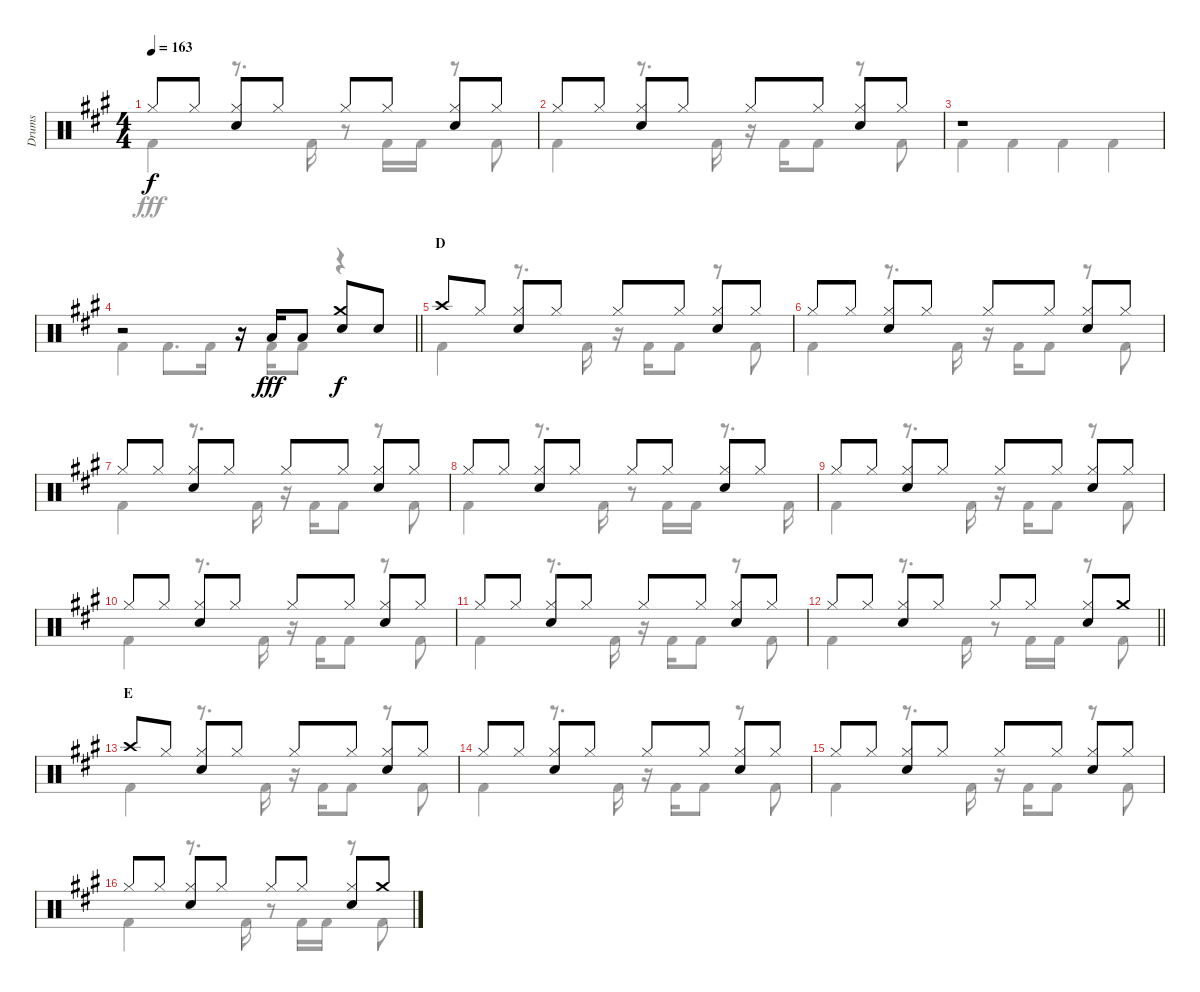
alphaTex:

\track ("Drums" "Drums") {instrument percussion}
\staff {score}
\articulation defaults
\voice
\ts (4 4)
\tempo 163
\clef neutral
\ks a "Hi-Hat (closed)".8{dy f} "Hi-Hat (closed)".8
("Hi-Hat (closed)" "Snare (hit) 2").8 "Hi-Hat (closed)".8 "Hi-Hat (closed)".8 "Hi-Hat (closed)".8 ("Hi-Hat (closed)" "Snare (hit) 2").8 "Hi-Hat (closed)".8 |
"Hi-Hat (closed)".8 "Hi-Hat (closed)".8 ("Hi-Hat (closed)" "Snare (hit) 2").8 "Hi-Hat (closed)".8 "Hi-Hat (closed)".8 "Hi-Hat (closed)".8 ("Hi-Hat (closed)" "Snare (hit) 2").8 "Hi-Hat (closed)".8 |
r.1 |
\barLineRight lightlight
r.2 r.16 "Low Tom (hit)".16{dy fff} "Low Tom (hit)".8 ("Crash medium (hit)" "Snare (hit) 2").8{dy f} "Snare (hit) 2".8 |
\section ("" "D")
"Crash high (hit)".8 "Hi-Hat (closed)".8 ("Hi-Hat (closed)" "Snare (hit) 2").8 "Hi-Hat (closed)".8 "Hi-Hat (closed)".8 "Hi-Hat (closed)".8 ("Hi-Hat (closed)" "Snare (hit) 2").8 "Hi-Hat (closed)".8 |
"Hi-Hat (closed)".8 "Hi-Hat (closed)".8 ("Hi-Hat (closed)" "Snare (hit) 2").8 "Hi-Hat (closed)".8 "Hi-Hat (closed)".8 "Hi-Hat (closed)".8 ("Hi-Hat (closed)" "Snare (hit) 2").8 "Hi-Hat (closed)".8 |
"Hi-Hat (closed)".8 "Hi-Hat (closed)".8 ("Hi-Hat (closed)" "Snare (hit) 2").8 "Hi-Hat (closed)".8 "Hi-Hat (closed)".8 "Hi-Hat (closed)".8 ("Hi-Hat (closed)" "Snare (hit) 2").8 "Hi-Hat (closed)".8 |
"Hi-Hat (closed)".8 "Hi-Hat (closed)".8 ("Hi-Hat (closed)" "Snare (hit) 2").8 "Hi-Hat (closed)".8 "Hi-Hat (closed)".8 "Hi-Hat (closed)".8 ("Hi-Hat (closed)" "Snare (hit) 2").8 "Hi-Hat (closed)".8 |
"Hi-Hat (closed)".8 "Hi-Hat (closed)".8 ("Hi-Hat (closed)" "Snare (hit) 2").8 "Hi-Hat (closed)".8 "Hi-Hat (closed)".8 "Hi-Hat (closed)".8 ("Hi-Hat (closed)" "Snare (hit) 2").8 "Hi-Hat (closed)".8 |
"Hi-Hat (closed)".8 "Hi-Hat (closed)".8 ("Hi-Hat (closed)" "Snare (hit) 2").8 "Hi-Hat (closed)".8 "Hi-Hat (closed)".8 "Hi-Hat (closed)".8 ("Hi-Hat (closed)" "Snare (hit) 2").8 "Hi-Hat (closed)".8 |
"Hi-Hat (closed)".8 "Hi-Hat (closed)".8 ("Hi-Hat (closed)" "Snare (hit) 2").8 "Hi-Hat (closed)".8 "Hi-Hat (closed)".8 "Hi-Hat (closed)".8 ("Hi-Hat (closed)" "Snare (hit) 2").8 "Hi-Hat (closed)".8 |
\barLineRight lightlight "Hi-Hat (closed)".8 "Hi-Hat (closed)".8
("Hi-Hat (closed)" "Snare (hit) 2").8 "Hi-Hat (closed)".8 "Hi-Hat (closed)".8 "Hi-Hat (closed)".8 ("Hi-Hat (closed)" "Snare (hit) 2").8 "Crash medium (hit)".8 |
\section ("" "E")
"Crash high (hit)".8 "Hi-Hat (closed)".8 ("Hi-Hat (closed)" "Snare (hit) 2").8 "Hi-Hat (closed)".8 "Hi-Hat (closed)".8 "Hi-Hat (closed)".8 ("Hi-Hat (closed)" "Snare (hit) 2").8 "Hi-Hat (closed)".8 |
"Hi-Hat (closed)".8 "Hi-Hat (closed)".8 ("Hi-Hat (closed)" "Snare (hit) 2").8 "Hi-Hat (closed)".8 "Hi-Hat (closed)".8 "Hi-Hat (closed)".8 ("Hi-Hat (closed)" "Snare (hit) 2").8 "Hi-Hat (closed)".8 |
"Hi-Hat (closed)".8 "Hi-Hat (closed)".8 ("Hi-Hat (closed)" "Snare (hit) 2").8 "Hi-Hat (closed)".8 "Hi-Hat (closed)".8 "Hi-Hat (closed)".8 ("Hi-Hat (closed)" "Snare (hit) 2").8 "Hi-Hat (closed)".8 |
"Hi-Hat (closed)".8 "Hi-Hat (closed)".8 ("Hi-Hat (closed)" "Snare (hit) 2").8 "Hi-Hat (closed)".8 "Hi-Hat (closed)".8 "Hi-Hat (closed)".8 ("Hi-Hat (closed)" "Snare (hit) 2").8 "Crash medium (hit)".8
\voice
\clef neutral
\ottava regular
\simile none
\ks a "Kick (hit) 2".4{dy fff}
r.8{d} "Kick (hit) 2".16 r.8 "Kick (hit) 2".16 "Kick (hit) 2".16 r.8 "Kick (hit) 2".8 |
"Kick (hit) 2".4 r.8{d} "Kick (hit) 2".16 r.16 "Kick (hit) 2".16 "Kick (hit) 2".8 r.8 "Kick (hit) 2".8 |
"Kick (hit) 2".4 "Kick (hit) 2".4 "Kick (hit) 2".4 "Kick (hit) 2".4 |
\barLineRight lightlight "Kick (hit) 2".4 "Kick (hit) 2".8{d} "Kick (hit) 2".16
r.16 "Kick (hit) 2".16 "Kick (hit) 2".8 r.4 |
"Kick (hit) 2".4 r.8{d} "Kick (hit) 2".16 r.16 "Kick (hit) 2".16 "Kick (hit) 2".8 r.8 "Kick (hit) 2".8 |
"Kick (hit) 2".4 r.8{d} "Kick (hit) 2".16 r.16 "Kick (hit) 2".16 "Kick (hit) 2".8 r.8 "Kick (hit) 2".8 |
"Kick (hit) 2".4 r.8{d} "Kick (hit) 2".16 r.16 "Kick (hit) 2".16 "Kick (hit) 2".8 r.8 "Kick (hit) 2".8 |
"Kick (hit) 2".4 r.8{d} "Kick (hit) 2".16 r.8 "Kick (hit) 2".16 "Kick (hit) 2".16 r.8{d} "Kick (hit) 2".16 |
"Kick (hit) 2".4 r.8{d} "Kick (hit) 2".16 r.16 "Kick (hit) 2".16 "Kick (hit) 2".8 r.8 "Kick (hit) 2".8 |
"Kick (hit) 2".4 r.8{d} "Kick (hit) 2".16 r.16 "Kick (hit) 2".16 "Kick (hit) 2".8 r.8 "Kick (hit) 2".8 |
"Kick (hit) 2".4 r.8{d} "Kick (hit) 2".16 r.16 "Kick (hit) 2".16 "Kick (hit) 2".8 r.8 "Kick (hit) 2".8 |
\barLineRight lightlight "Kick (hit) 2".4
r.8{d} "Kick (hit) 2".16 r.8 "Kick (hit) 2".16 "Kick (hit) 2".16 r.8 "Kick (hit) 2".8 |
"Kick (hit) 2".4 r.8{d} "Kick (hit) 2".16 r.16 "Kick (hit) 2".16 "Kick (hit) 2".8 r.8 "Kick (hit) 2".8 |
"Kick (hit) 2".4 r.8{d} "Kick (hit) 2".16 r.16 "Kick (hit) 2".16 "Kick (hit) 2".8 r.8 "Kick (hit) 2".8 |
"Kick (hit) 2".4 r.8{d} "Kick (hit) 2".16 r.16 "Kick (hit) 2".16 "Kick (hit) 2".8 r.8 "Kick (hit) 2".8 |
"Kick (hit) 2".4 r.8{d} "Kick (hit) 2".16 r.8 "Kick (hit) 2".16 "Kick (hit) 2".16 r.8 "Kick (hit) 2".8
